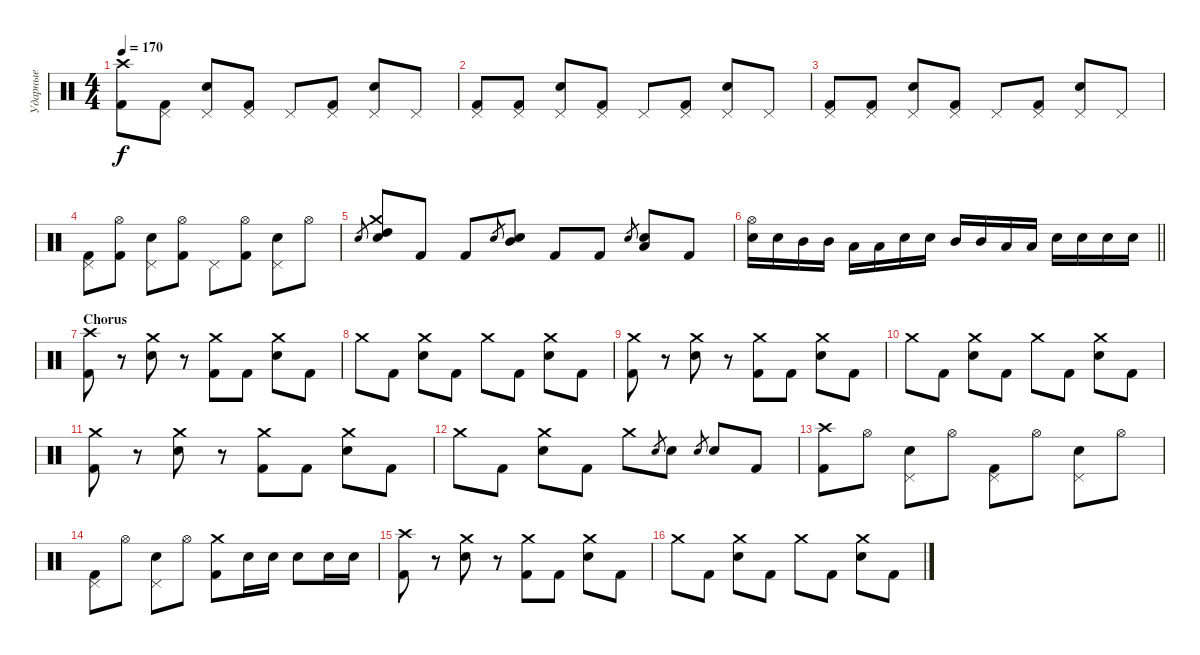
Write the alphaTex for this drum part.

\track ("Ударные" "Ударные") {instrument percussion}
\staff {score}
\articulation defaults
\ts (4 4)
\tempo 170
\clef neutral
\ks c
("Crash high (hit)" "Kick (hit) 2").8{dy f} ("Pedal Hi-Hat (hit)" "Kick (hit) 2").8 ("Pedal Hi-Hat (hit)" "Electric Snare (hit)").8 ("Pedal Hi-Hat (hit)" "Kick (hit) 2").8 "Pedal Hi-Hat (hit)".8 ("Pedal Hi-Hat (hit)" "Kick (hit) 2").8 ("Pedal Hi-Hat (hit)" "Electric Snare (hit)").8 "Pedal Hi-Hat (hit)".8 |
("Pedal Hi-Hat (hit)" "Kick (hit) 2").8 ("Pedal Hi-Hat (hit)" "Kick (hit) 2").8 ("Pedal Hi-Hat (hit)" "Electric Snare (hit)").8 ("Pedal Hi-Hat (hit)" "Kick (hit) 2").8 "Pedal Hi-Hat (hit)".8 ("Pedal Hi-Hat (hit)" "Kick (hit) 2").8 ("Pedal Hi-Hat (hit)" "Electric Snare (hit)").8 "Pedal Hi-Hat (hit)".8 |
("Pedal Hi-Hat (hit)" "Kick (hit) 2").8 ("Pedal Hi-Hat (hit)" "Kick (hit) 2").8 ("Pedal Hi-Hat (hit)" "Electric Snare (hit)").8 ("Pedal Hi-Hat (hit)" "Kick (hit) 2").8 "Pedal Hi-Hat (hit)".8 ("Pedal Hi-Hat (hit)" "Kick (hit) 2").8 ("Pedal Hi-Hat (hit)" "Electric Snare (hit)").8 "Pedal Hi-Hat (hit)".8 |
("Pedal Hi-Hat (hit)" "Kick (hit) 2").8 ("Hi-Hat (open)" "Kick (hit) 2").8 ("Pedal Hi-Hat (hit)" "Electric Snare (hit)").8 ("Hi-Hat (open)" "Kick (hit) 2").8 "Pedal Hi-Hat (hit)".8 ("Hi-Hat (open)" "Kick (hit) 2").8 ("Pedal Hi-Hat (hit)" "Electric Snare (hit)").8 "Hi-Hat (open)".8 |
"Electric Snare (hit)".8{gr} ("Crash medium (hit)" "Electric Snare (hit)" "High Tom (hit)").8 "Kick (hit) 2".8 "Kick (hit) 2".8 "Electric Snare (hit)".8{gr} ("Electric Snare (hit)" "Mid Tom (hit)").8 "Kick (hit) 2".8 "Kick (hit) 2".8 "Electric Snare (hit)".8{gr} ("Electric Snare (hit)" "Low Tom (hit)").8 "Kick (hit) 2".8 |
\barLineRight lightlight
("Hi-Hat (open)" "Electric Snare (hit)").16 "Electric Snare (hit)".16 "Mid Tom (hit)".16 "Mid Tom (hit)".16 "Low Tom (hit)".16 "Low Tom (hit)".16 "Electric Snare (hit)".16 "Electric Snare (hit)".16 "Mid Tom (hit)".16 "Mid Tom (hit)".16 "Low Tom (hit)".16 "Low Tom (hit)".16 "Electric Snare (hit)".16 "Electric Snare (hit)".16 "Electric Snare (hit)".16 "Electric Snare (hit)".16 |
\section ("" "Chorus")
("Crash high (hit)" "Kick (hit) 2").8 r.8 ("Crash medium (hit)" "Electric Snare (hit)").8 r.8 ("Crash medium (hit)" "Kick (hit) 2").8 "Kick (hit) 2".8 ("Crash medium (hit)" "Electric Snare (hit)").8 "Kick (hit) 2".8 |
"Crash medium (hit)".8 "Kick (hit) 2".8 ("Crash medium (hit)" "Electric Snare (hit)").8 "Kick (hit) 2".8 "Crash medium (hit)".8 "Kick (hit) 2".8 ("Crash medium (hit)" "Electric Snare (hit)").8 "Kick (hit) 2".8 |
("Crash medium (hit)" "Kick (hit) 2").8 r.8 ("Crash medium (hit)" "Electric Snare (hit)").8 r.8 ("Crash medium (hit)" "Kick (hit) 2").8 "Kick (hit) 2".8 ("Crash medium (hit)" "Electric Snare (hit)").8 "Kick (hit) 2".8 |
"Crash medium (hit)".8 "Kick (hit) 2".8 ("Crash medium (hit)" "Electric Snare (hit)").8 "Kick (hit) 2".8 "Crash medium (hit)".8 "Kick (hit) 2".8 ("Crash medium (hit)" "Electric Snare (hit)").8 "Kick (hit) 2".8 |
("Crash medium (hit)" "Kick (hit) 2").8 r.8 ("Crash medium (hit)" "Electric Snare (hit)").8 r.8 ("Crash medium (hit)" "Kick (hit) 2").8 "Kick (hit) 2".8 ("Crash medium (hit)" "Electric Snare (hit)").8 "Kick (hit) 2".8 |
"Crash medium (hit)".8 "Kick (hit) 2".8 ("Crash medium (hit)" "Electric Snare (hit)").8 "Kick (hit) 2".8 "Crash medium (hit)".8 "Electric Snare (hit)".8{gr} "Electric Snare (hit)".8 "Electric Snare (hit)".8{gr} "Electric Snare (hit)".8 "Kick (hit) 2".8 |
("Crash high (hit)" "Kick (hit) 2").8 "Hi-Hat (open)".8 ("Pedal Hi-Hat (hit)" "Electric Snare (hit)").8 "Hi-Hat (open)".8 ("Pedal Hi-Hat (hit)" "Kick (hit) 2").8 "Hi-Hat (open)".8 ("Pedal Hi-Hat (hit)" "Electric Snare (hit)").8 "Hi-Hat (open)".8 |
("Pedal Hi-Hat (hit)" "Kick (hit) 2").8 "Hi-Hat (open)".8 ("Pedal Hi-Hat (hit)" "Electric Snare (hit)").8 "Hi-Hat (open)".8 ("Crash medium (hit)" "Kick (hit) 2").8 "Electric Snare (hit)".16 "Electric Snare (hit)".16 "Electric Snare (hit)".8 "Electric Snare (hit)".16 "Electric Snare (hit)".16 |
("Crash high (hit)" "Kick (hit) 2").8 r.8 ("Crash medium (hit)" "Electric Snare (hit)").8 r.8 ("Crash medium (hit)" "Kick (hit) 2").8 "Kick (hit) 2".8 ("Crash medium (hit)" "Electric Snare (hit)").8 "Kick (hit) 2".8 |
"Crash medium (hit)".8 "Kick (hit) 2".8 ("Crash medium (hit)" "Electric Snare (hit)").8 "Kick (hit) 2".8 "Crash medium (hit)".8 "Kick (hit) 2".8 ("Crash medium (hit)" "Electric Snare (hit)").8 "Kick (hit) 2".8
